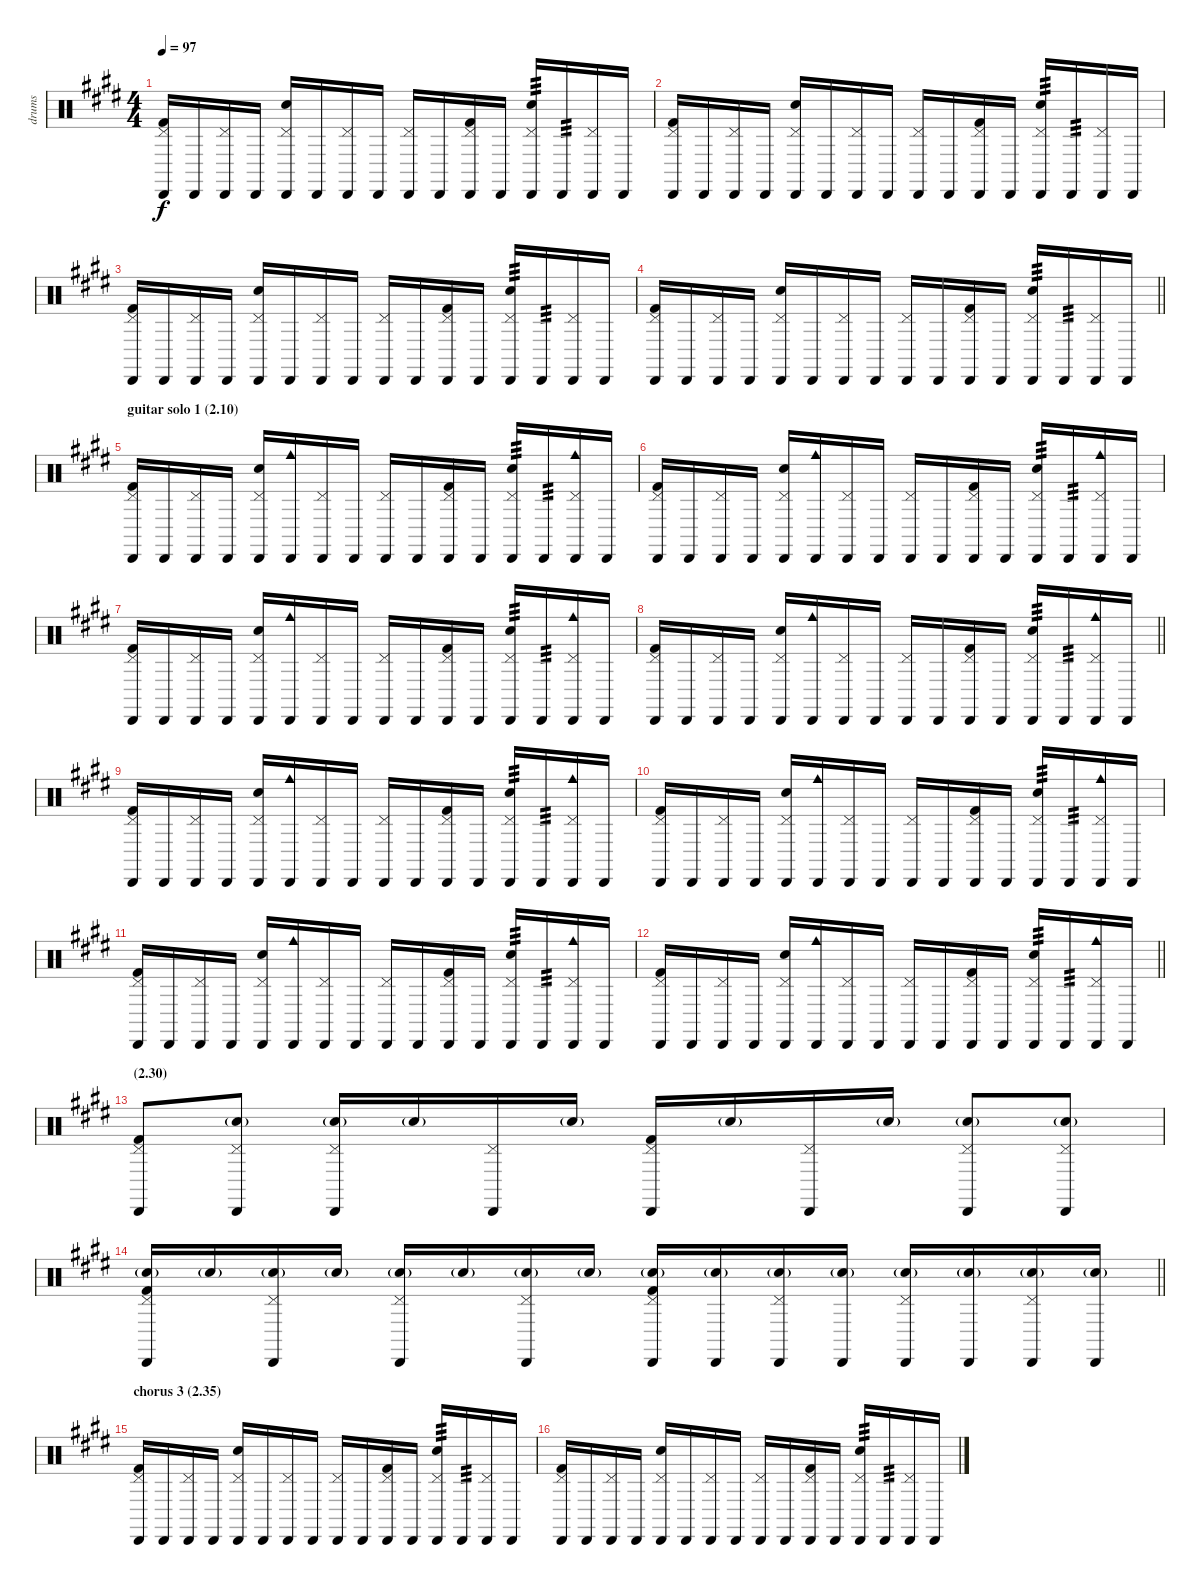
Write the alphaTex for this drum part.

\track ("drums" "drums") {instrument percussion}
\staff {score}
\articulation defaults
\ts (4 4)
\tempo 97
\clef neutral
\ks e
("Pedal Hi-Hat (hit)" "Cabasa (hit)" "Kick (hit) 2").16{dy f} "Cabasa (hit)".16 ("Pedal Hi-Hat (hit)" "Cabasa (hit)").16 "Cabasa (hit)".16 ("Pedal Hi-Hat (hit)" "Cabasa (hit)" "Electric Snare (hit)").16 "Cabasa (hit)".16 ("Pedal Hi-Hat (hit)" "Cabasa (hit)").16 "Cabasa (hit)".16 ("Pedal Hi-Hat (hit)" "Cabasa (hit)").16 "Cabasa (hit)".16 ("Pedal Hi-Hat (hit)" "Cabasa (hit)" "Kick (hit) 2").16 "Cabasa (hit)".16 ("Pedal Hi-Hat (hit)" "Cabasa (hit)" "Electric Snare (hit)").16{tp 3} "Cabasa (hit)".16{tp 3} ("Pedal Hi-Hat (hit)" "Cabasa (hit)").16 "Cabasa (hit)".16 |
("Pedal Hi-Hat (hit)" "Cabasa (hit)" "Kick (hit) 2").16 "Cabasa (hit)".16 ("Pedal Hi-Hat (hit)" "Cabasa (hit)").16 "Cabasa (hit)".16 ("Pedal Hi-Hat (hit)" "Cabasa (hit)" "Electric Snare (hit)").16 "Cabasa (hit)".16 ("Pedal Hi-Hat (hit)" "Cabasa (hit)").16 "Cabasa (hit)".16 ("Pedal Hi-Hat (hit)" "Cabasa (hit)").16 "Cabasa (hit)".16 ("Pedal Hi-Hat (hit)" "Cabasa (hit)" "Kick (hit) 2").16 "Cabasa (hit)".16 ("Pedal Hi-Hat (hit)" "Cabasa (hit)" "Electric Snare (hit)").16{tp 3} "Cabasa (hit)".16{tp 3} ("Pedal Hi-Hat (hit)" "Cabasa (hit)").16 "Cabasa (hit)".16 |
("Pedal Hi-Hat (hit)" "Cabasa (hit)" "Kick (hit) 2").16 "Cabasa (hit)".16 ("Pedal Hi-Hat (hit)" "Cabasa (hit)").16 "Cabasa (hit)".16 ("Pedal Hi-Hat (hit)" "Cabasa (hit)" "Electric Snare (hit)").16 "Cabasa (hit)".16 ("Pedal Hi-Hat (hit)" "Cabasa (hit)").16 "Cabasa (hit)".16 ("Pedal Hi-Hat (hit)" "Cabasa (hit)").16 "Cabasa (hit)".16 ("Pedal Hi-Hat (hit)" "Cabasa (hit)" "Kick (hit) 2").16 "Cabasa (hit)".16 ("Pedal Hi-Hat (hit)" "Cabasa (hit)" "Electric Snare (hit)").16{tp 3} "Cabasa (hit)".16{tp 3} ("Pedal Hi-Hat (hit)" "Cabasa (hit)").16 "Cabasa (hit)".16 |
\barLineRight lightlight
("Pedal Hi-Hat (hit)" "Cabasa (hit)" "Kick (hit) 2").16 "Cabasa (hit)".16 ("Pedal Hi-Hat (hit)" "Cabasa (hit)").16 "Cabasa (hit)".16 ("Pedal Hi-Hat (hit)" "Cabasa (hit)" "Electric Snare (hit)").16 "Cabasa (hit)".16 ("Pedal Hi-Hat (hit)" "Cabasa (hit)").16 "Cabasa (hit)".16 ("Pedal Hi-Hat (hit)" "Cabasa (hit)").16 "Cabasa (hit)".16 ("Pedal Hi-Hat (hit)" "Cabasa (hit)" "Kick (hit) 2").16 "Cabasa (hit)".16 ("Pedal Hi-Hat (hit)" "Cabasa (hit)" "Electric Snare (hit)").16{tp 3} "Cabasa (hit)".16{tp 3} ("Pedal Hi-Hat (hit)" "Cabasa (hit)").16 "Cabasa (hit)".16 |
\section ("" "guitar solo 1 (2.10)")
("Pedal Hi-Hat (hit)" "Cabasa (hit)" "Kick (hit) 2").16 "Cabasa (hit)".16 ("Pedal Hi-Hat (hit)" "Cabasa (hit)").16 "Cabasa (hit)".16 ("Pedal Hi-Hat (hit)" "Cabasa (hit)" "Electric Snare (hit)").16 ("Cabasa (hit)" "Cowbell medium (hit)").16 ("Pedal Hi-Hat (hit)" "Cabasa (hit)").16 "Cabasa (hit)".16 ("Pedal Hi-Hat (hit)" "Cabasa (hit)").16 "Cabasa (hit)".16 ("Pedal Hi-Hat (hit)" "Cabasa (hit)" "Kick (hit) 2").16 "Cabasa (hit)".16 ("Pedal Hi-Hat (hit)" "Cabasa (hit)" "Electric Snare (hit)").16{tp 3} "Cabasa (hit)".16{tp 3} ("Pedal Hi-Hat (hit)" "Cabasa (hit)" "Cowbell medium (hit)").16 "Cabasa (hit)".16 |
("Pedal Hi-Hat (hit)" "Cabasa (hit)" "Kick (hit) 2").16 "Cabasa (hit)".16 ("Pedal Hi-Hat (hit)" "Cabasa (hit)").16 "Cabasa (hit)".16 ("Pedal Hi-Hat (hit)" "Cabasa (hit)" "Electric Snare (hit)").16 ("Cabasa (hit)" "Cowbell medium (hit)").16 ("Pedal Hi-Hat (hit)" "Cabasa (hit)").16 "Cabasa (hit)".16 ("Pedal Hi-Hat (hit)" "Cabasa (hit)").16 "Cabasa (hit)".16 ("Pedal Hi-Hat (hit)" "Cabasa (hit)" "Kick (hit) 2").16 "Cabasa (hit)".16 ("Pedal Hi-Hat (hit)" "Cabasa (hit)" "Electric Snare (hit)").16{tp 3} "Cabasa (hit)".16{tp 3} ("Pedal Hi-Hat (hit)" "Cabasa (hit)" "Cowbell medium (hit)").16 "Cabasa (hit)".16 |
("Pedal Hi-Hat (hit)" "Cabasa (hit)" "Kick (hit) 2").16 "Cabasa (hit)".16 ("Pedal Hi-Hat (hit)" "Cabasa (hit)").16 "Cabasa (hit)".16 ("Pedal Hi-Hat (hit)" "Cabasa (hit)" "Electric Snare (hit)").16 ("Cabasa (hit)" "Cowbell medium (hit)").16 ("Pedal Hi-Hat (hit)" "Cabasa (hit)").16 "Cabasa (hit)".16 ("Pedal Hi-Hat (hit)" "Cabasa (hit)").16 "Cabasa (hit)".16 ("Pedal Hi-Hat (hit)" "Cabasa (hit)" "Kick (hit) 2").16 "Cabasa (hit)".16 ("Pedal Hi-Hat (hit)" "Cabasa (hit)" "Electric Snare (hit)").16{tp 3} "Cabasa (hit)".16{tp 3} ("Pedal Hi-Hat (hit)" "Cabasa (hit)" "Cowbell medium (hit)").16 "Cabasa (hit)".16 |
\barLineRight lightlight
("Pedal Hi-Hat (hit)" "Cabasa (hit)" "Kick (hit) 2").16 "Cabasa (hit)".16 ("Pedal Hi-Hat (hit)" "Cabasa (hit)").16 "Cabasa (hit)".16 ("Pedal Hi-Hat (hit)" "Cabasa (hit)" "Electric Snare (hit)").16 ("Cabasa (hit)" "Cowbell medium (hit)").16 ("Pedal Hi-Hat (hit)" "Cabasa (hit)").16 "Cabasa (hit)".16 ("Pedal Hi-Hat (hit)" "Cabasa (hit)").16 "Cabasa (hit)".16 ("Pedal Hi-Hat (hit)" "Cabasa (hit)" "Kick (hit) 2").16 "Cabasa (hit)".16 ("Pedal Hi-Hat (hit)" "Cabasa (hit)" "Electric Snare (hit)").16{tp 3} "Cabasa (hit)".16{tp 3} ("Pedal Hi-Hat (hit)" "Cabasa (hit)" "Cowbell medium (hit)").16 "Cabasa (hit)".16 |
("Pedal Hi-Hat (hit)" "Cabasa (hit)" "Kick (hit) 2").16 "Cabasa (hit)".16 ("Pedal Hi-Hat (hit)" "Cabasa (hit)").16 "Cabasa (hit)".16 ("Pedal Hi-Hat (hit)" "Cabasa (hit)" "Electric Snare (hit)").16 ("Cabasa (hit)" "Cowbell medium (hit)").16 ("Pedal Hi-Hat (hit)" "Cabasa (hit)").16 "Cabasa (hit)".16 ("Pedal Hi-Hat (hit)" "Cabasa (hit)").16 "Cabasa (hit)".16 ("Pedal Hi-Hat (hit)" "Cabasa (hit)" "Kick (hit) 2").16 "Cabasa (hit)".16 ("Pedal Hi-Hat (hit)" "Cabasa (hit)" "Electric Snare (hit)").16{tp 3} "Cabasa (hit)".16{tp 3} ("Pedal Hi-Hat (hit)" "Cabasa (hit)" "Cowbell medium (hit)").16 "Cabasa (hit)".16 |
("Pedal Hi-Hat (hit)" "Cabasa (hit)" "Kick (hit) 2").16 "Cabasa (hit)".16 ("Pedal Hi-Hat (hit)" "Cabasa (hit)").16 "Cabasa (hit)".16 ("Pedal Hi-Hat (hit)" "Cabasa (hit)" "Electric Snare (hit)").16 ("Cabasa (hit)" "Cowbell medium (hit)").16 ("Pedal Hi-Hat (hit)" "Cabasa (hit)").16 "Cabasa (hit)".16 ("Pedal Hi-Hat (hit)" "Cabasa (hit)").16 "Cabasa (hit)".16 ("Pedal Hi-Hat (hit)" "Cabasa (hit)" "Kick (hit) 2").16 "Cabasa (hit)".16 ("Pedal Hi-Hat (hit)" "Cabasa (hit)" "Electric Snare (hit)").16{tp 3} "Cabasa (hit)".16{tp 3} ("Pedal Hi-Hat (hit)" "Cabasa (hit)" "Cowbell medium (hit)").16 "Cabasa (hit)".16 |
("Pedal Hi-Hat (hit)" "Cabasa (hit)" "Kick (hit) 2").16 "Cabasa (hit)".16 ("Pedal Hi-Hat (hit)" "Cabasa (hit)").16 "Cabasa (hit)".16 ("Pedal Hi-Hat (hit)" "Cabasa (hit)" "Electric Snare (hit)").16 ("Cabasa (hit)" "Cowbell medium (hit)").16 ("Pedal Hi-Hat (hit)" "Cabasa (hit)").16 "Cabasa (hit)".16 ("Pedal Hi-Hat (hit)" "Cabasa (hit)").16 "Cabasa (hit)".16 ("Pedal Hi-Hat (hit)" "Cabasa (hit)" "Kick (hit) 2").16 "Cabasa (hit)".16 ("Pedal Hi-Hat (hit)" "Cabasa (hit)" "Electric Snare (hit)").16{tp 3} "Cabasa (hit)".16{tp 3} ("Pedal Hi-Hat (hit)" "Cabasa (hit)" "Cowbell medium (hit)").16 "Cabasa (hit)".16 |
\barLineRight lightlight
("Pedal Hi-Hat (hit)" "Cabasa (hit)" "Kick (hit) 2").16 "Cabasa (hit)".16 ("Pedal Hi-Hat (hit)" "Cabasa (hit)").16 "Cabasa (hit)".16 ("Pedal Hi-Hat (hit)" "Cabasa (hit)" "Electric Snare (hit)").16 ("Cabasa (hit)" "Cowbell medium (hit)").16 ("Pedal Hi-Hat (hit)" "Cabasa (hit)").16 "Cabasa (hit)".16 ("Pedal Hi-Hat (hit)" "Cabasa (hit)").16 "Cabasa (hit)".16 ("Pedal Hi-Hat (hit)" "Cabasa (hit)" "Kick (hit) 2").16 "Cabasa (hit)".16 ("Pedal Hi-Hat (hit)" "Cabasa (hit)" "Electric Snare (hit)").16{tp 3} "Cabasa (hit)".16{tp 3} ("Pedal Hi-Hat (hit)" "Cabasa (hit)" "Cowbell medium (hit)").16 "Cabasa (hit)".16 |
\section ("" "(2.30)")
("Pedal Hi-Hat (hit)" "Cabasa (hit)" "Kick (hit) 2").8 ("Pedal Hi-Hat (hit)" "Cabasa (hit)" "Electric Snare (hit)"{g}).8 ("Pedal Hi-Hat (hit)" "Cabasa (hit)" "Electric Snare (hit)"{g}).16 "Electric Snare (hit)"{g}.16 ("Pedal Hi-Hat (hit)" "Cabasa (hit)").16 "Electric Snare (hit)"{g}.16 ("Pedal Hi-Hat (hit)" "Cabasa (hit)" "Kick (hit) 2").16 "Electric Snare (hit)"{g}.16 ("Pedal Hi-Hat (hit)" "Cabasa (hit)").16 "Electric Snare (hit)"{g}.16 ("Pedal Hi-Hat (hit)" "Cabasa (hit)" "Electric Snare (hit)"{g}).8 ("Pedal Hi-Hat (hit)" "Cabasa (hit)" "Electric Snare (hit)"{g}).8 |
\barLineRight lightlight
("Pedal Hi-Hat (hit)" "Cabasa (hit)" "Electric Snare (hit)"{g} "Kick (hit) 2").16 "Electric Snare (hit)"{g}.16 ("Pedal Hi-Hat (hit)" "Cabasa (hit)" "Electric Snare (hit)"{g}).16 "Electric Snare (hit)"{g}.16 ("Pedal Hi-Hat (hit)" "Cabasa (hit)" "Electric Snare (hit)"{g}).16 "Electric Snare (hit)"{g}.16 ("Pedal Hi-Hat (hit)" "Cabasa (hit)" "Electric Snare (hit)"{g}).16 "Electric Snare (hit)"{g}.16 ("Pedal Hi-Hat (hit)" "Cabasa (hit)" "Electric Snare (hit)"{g} "Kick (hit) 2").16 ("Cabasa (hit)" "Electric Snare (hit)"{g}).16 ("Pedal Hi-Hat (hit)" "Cabasa (hit)" "Electric Snare (hit)"{g}).16 ("Cabasa (hit)" "Electric Snare (hit)"{g}).16 ("Pedal Hi-Hat (hit)" "Cabasa (hit)" "Electric Snare (hit)"{g}).16 ("Cabasa (hit)" "Electric Snare (hit)"{g}).16 ("Pedal Hi-Hat (hit)" "Cabasa (hit)" "Electric Snare (hit)"{g}).16 ("Cabasa (hit)" "Electric Snare (hit)"{g}).16 |
\section ("" "chorus 3 (2.35)")
("Pedal Hi-Hat (hit)" "Cabasa (hit)" "Kick (hit) 2").16 "Cabasa (hit)".16 ("Pedal Hi-Hat (hit)" "Cabasa (hit)").16 "Cabasa (hit)".16 ("Pedal Hi-Hat (hit)" "Cabasa (hit)" "Electric Snare (hit)").16 "Cabasa (hit)".16 ("Pedal Hi-Hat (hit)" "Cabasa (hit)").16 "Cabasa (hit)".16 ("Pedal Hi-Hat (hit)" "Cabasa (hit)").16 "Cabasa (hit)".16 ("Pedal Hi-Hat (hit)" "Cabasa (hit)" "Kick (hit) 2").16 "Cabasa (hit)".16 ("Pedal Hi-Hat (hit)" "Cabasa (hit)" "Electric Snare (hit)").16{tp 3} "Cabasa (hit)".16{tp 3} ("Pedal Hi-Hat (hit)" "Cabasa (hit)").16 "Cabasa (hit)".16 |
("Pedal Hi-Hat (hit)" "Cabasa (hit)" "Kick (hit) 2").16 "Cabasa (hit)".16 ("Pedal Hi-Hat (hit)" "Cabasa (hit)").16 "Cabasa (hit)".16 ("Pedal Hi-Hat (hit)" "Cabasa (hit)" "Electric Snare (hit)").16 "Cabasa (hit)".16 ("Pedal Hi-Hat (hit)" "Cabasa (hit)").16 "Cabasa (hit)".16 ("Pedal Hi-Hat (hit)" "Cabasa (hit)").16 "Cabasa (hit)".16 ("Pedal Hi-Hat (hit)" "Cabasa (hit)" "Kick (hit) 2").16 "Cabasa (hit)".16 ("Pedal Hi-Hat (hit)" "Cabasa (hit)" "Electric Snare (hit)").16{tp 3} "Cabasa (hit)".16{tp 3} ("Pedal Hi-Hat (hit)" "Cabasa (hit)").16 "Cabasa (hit)".16
